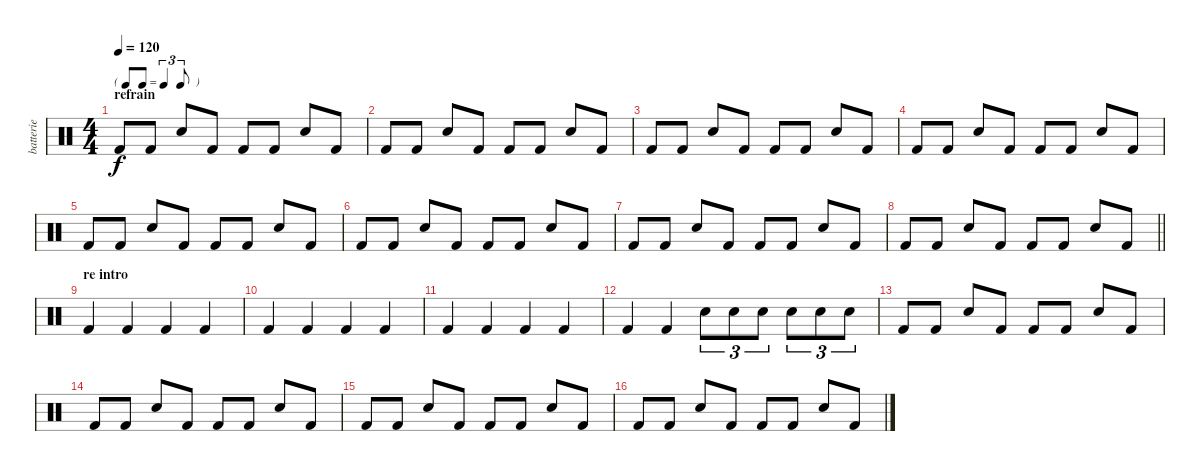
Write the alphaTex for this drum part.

\track ("batterie" "batterie") {instrument percussion}
\staff {score}
\articulation defaults
\ts (4 4)
\tf triplet8th
\section ("" "refrain")
\tempo 120
\clef neutral
\ks c "Kick (hit) 2".8{dy f} "Kick (hit) 2".8 "Snare (hit) 2".8 "Kick (hit) 2".8 "Kick (hit) 2".8 "Kick (hit) 2".8 "Snare (hit) 2".8 "Kick (hit) 2".8
|
"Kick (hit) 2".8 "Kick (hit) 2".8 "Snare (hit) 2".8 "Kick (hit) 2".8 "Kick (hit) 2".8 "Kick (hit) 2".8 "Snare (hit) 2".8 "Kick (hit) 2".8 |
"Kick (hit) 2".8 "Kick (hit) 2".8 "Snare (hit) 2".8 "Kick (hit) 2".8 "Kick (hit) 2".8 "Kick (hit) 2".8 "Snare (hit) 2".8 "Kick (hit) 2".8 |
"Kick (hit) 2".8 "Kick (hit) 2".8 "Snare (hit) 2".8 "Kick (hit) 2".8 "Kick (hit) 2".8 "Kick (hit) 2".8 "Snare (hit) 2".8 "Kick (hit) 2".8 |
"Kick (hit) 2".8 "Kick (hit) 2".8 "Snare (hit) 2".8 "Kick (hit) 2".8 "Kick (hit) 2".8 "Kick (hit) 2".8 "Snare (hit) 2".8 "Kick (hit) 2".8 |
"Kick (hit) 2".8 "Kick (hit) 2".8 "Snare (hit) 2".8 "Kick (hit) 2".8 "Kick (hit) 2".8 "Kick (hit) 2".8 "Snare (hit) 2".8 "Kick (hit) 2".8 |
"Kick (hit) 2".8 "Kick (hit) 2".8 "Snare (hit) 2".8 "Kick (hit) 2".8 "Kick (hit) 2".8 "Kick (hit) 2".8 "Snare (hit) 2".8 "Kick (hit) 2".8 |
\barLineRight lightlight "Kick (hit) 2".8 "Kick (hit) 2".8 "Snare (hit) 2".8 "Kick (hit) 2".8 "Kick (hit) 2".8 "Kick (hit) 2".8 "Snare (hit) 2".8 "Kick (hit) 2".8
|
\section ("" "re intro")
"Kick (hit) 2".4 "Kick (hit) 2".4 "Kick (hit) 2".4 "Kick (hit) 2".4 |
"Kick (hit) 2".4 "Kick (hit) 2".4 "Kick (hit) 2".4 "Kick (hit) 2".4 |
"Kick (hit) 2".4 "Kick (hit) 2".4 "Kick (hit) 2".4 "Kick (hit) 2".4 |
"Kick (hit) 2".4 "Kick (hit) 2".4 "Snare (hit) 2".8{tu (3 2)} "Snare (hit) 2".8{tu (3 2)} "Snare (hit) 2".8{tu (3 2)} "Snare (hit) 2".8{tu (3 2)} "Snare (hit) 2".8{tu (3 2)} "Snare (hit) 2".8{tu (3 2)} |
"Kick (hit) 2".8 "Kick (hit) 2".8 "Snare (hit) 2".8 "Kick (hit) 2".8 "Kick (hit) 2".8 "Kick (hit) 2".8 "Snare (hit) 2".8 "Kick (hit) 2".8 |
"Kick (hit) 2".8 "Kick (hit) 2".8 "Snare (hit) 2".8 "Kick (hit) 2".8 "Kick (hit) 2".8 "Kick (hit) 2".8 "Snare (hit) 2".8 "Kick (hit) 2".8 |
"Kick (hit) 2".8 "Kick (hit) 2".8 "Snare (hit) 2".8 "Kick (hit) 2".8 "Kick (hit) 2".8 "Kick (hit) 2".8 "Snare (hit) 2".8 "Kick (hit) 2".8 |
"Kick (hit) 2".8 "Kick (hit) 2".8 "Snare (hit) 2".8 "Kick (hit) 2".8 "Kick (hit) 2".8 "Kick (hit) 2".8 "Snare (hit) 2".8 "Kick (hit) 2".8
